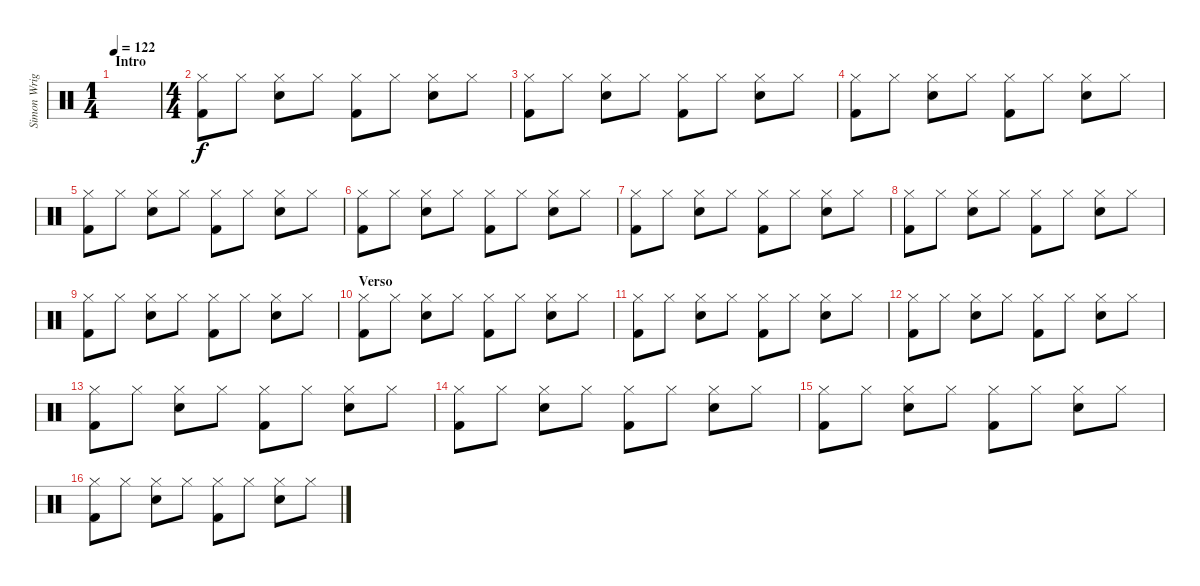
\track ("Simon Wright" "Simon Wrig") {instrument percussion}
\staff {score}
\articulation defaults
\ts (1 4)
\section ("" "Intro")
\tempo 122
\clef neutral
\ks c
|
\ts (4 4)
("Hi-Hat (closed)" "Kick (hit) 2").8 "Hi-Hat (closed)".8 ("Hi-Hat (closed)" "Snare (hit) 2").8 "Hi-Hat (closed)".8 ("Hi-Hat (closed)" "Kick (hit) 2").8 "Hi-Hat (closed)".8 ("Hi-Hat (closed)" "Snare (hit) 2").8 "Hi-Hat (closed)".8 |
("Hi-Hat (closed)" "Kick (hit) 2").8 "Hi-Hat (closed)".8 ("Hi-Hat (closed)" "Snare (hit) 2").8 "Hi-Hat (closed)".8 ("Hi-Hat (closed)" "Kick (hit) 2").8 "Hi-Hat (closed)".8 ("Hi-Hat (closed)" "Snare (hit) 2").8 "Hi-Hat (closed)".8 |
("Hi-Hat (closed)" "Kick (hit) 2").8 "Hi-Hat (closed)".8 ("Hi-Hat (closed)" "Snare (hit) 2").8 "Hi-Hat (closed)".8 ("Hi-Hat (closed)" "Kick (hit) 2").8 "Hi-Hat (closed)".8 ("Hi-Hat (closed)" "Snare (hit) 2").8 "Hi-Hat (closed)".8 |
("Hi-Hat (closed)" "Kick (hit) 2").8 "Hi-Hat (closed)".8 ("Hi-Hat (closed)" "Snare (hit) 2").8 "Hi-Hat (closed)".8 ("Hi-Hat (closed)" "Kick (hit) 2").8 "Hi-Hat (closed)".8 ("Hi-Hat (closed)" "Snare (hit) 2").8 "Hi-Hat (closed)".8 |
("Hi-Hat (closed)" "Kick (hit) 2").8 "Hi-Hat (closed)".8 ("Hi-Hat (closed)" "Snare (hit) 2").8 "Hi-Hat (closed)".8 ("Hi-Hat (closed)" "Kick (hit) 2").8 "Hi-Hat (closed)".8 ("Hi-Hat (closed)" "Snare (hit) 2").8 "Hi-Hat (closed)".8 |
("Hi-Hat (closed)" "Kick (hit) 2").8 "Hi-Hat (closed)".8 ("Hi-Hat (closed)" "Snare (hit) 2").8 "Hi-Hat (closed)".8 ("Hi-Hat (closed)" "Kick (hit) 2").8 "Hi-Hat (closed)".8 ("Hi-Hat (closed)" "Snare (hit) 2").8 "Hi-Hat (closed)".8 |
("Hi-Hat (closed)" "Kick (hit) 2").8 "Hi-Hat (closed)".8 ("Hi-Hat (closed)" "Snare (hit) 2").8 "Hi-Hat (closed)".8 ("Hi-Hat (closed)" "Kick (hit) 2").8 "Hi-Hat (closed)".8 ("Hi-Hat (closed)" "Snare (hit) 2").8 "Hi-Hat (closed)".8 |
("Hi-Hat (closed)" "Kick (hit) 2").8 "Hi-Hat (closed)".8 ("Hi-Hat (closed)" "Snare (hit) 2").8 "Hi-Hat (closed)".8 ("Hi-Hat (closed)" "Kick (hit) 2").8 "Hi-Hat (closed)".8 ("Hi-Hat (closed)" "Snare (hit) 2").8 "Hi-Hat (closed)".8 |
\section ("" "Verso")
("Hi-Hat (closed)" "Kick (hit) 2").8 "Hi-Hat (closed)".8 ("Hi-Hat (closed)" "Snare (hit) 2").8 "Hi-Hat (closed)".8 ("Hi-Hat (closed)" "Kick (hit) 2").8 "Hi-Hat (closed)".8 ("Hi-Hat (closed)" "Snare (hit) 2").8 "Hi-Hat (closed)".8 |
("Hi-Hat (closed)" "Kick (hit) 2").8 "Hi-Hat (closed)".8 ("Hi-Hat (closed)" "Snare (hit) 2").8 "Hi-Hat (closed)".8 ("Hi-Hat (closed)" "Kick (hit) 2").8 "Hi-Hat (closed)".8 ("Hi-Hat (closed)" "Snare (hit) 2").8 "Hi-Hat (closed)".8 |
("Hi-Hat (closed)" "Kick (hit) 2").8 "Hi-Hat (closed)".8 ("Hi-Hat (closed)" "Snare (hit) 2").8 "Hi-Hat (closed)".8 ("Hi-Hat (closed)" "Kick (hit) 2").8 "Hi-Hat (closed)".8 ("Hi-Hat (closed)" "Snare (hit) 2").8 "Hi-Hat (closed)".8 |
("Hi-Hat (closed)" "Kick (hit) 2").8 "Hi-Hat (closed)".8 ("Hi-Hat (closed)" "Snare (hit) 2").8 "Hi-Hat (closed)".8 ("Hi-Hat (closed)" "Kick (hit) 2").8 "Hi-Hat (closed)".8 ("Hi-Hat (closed)" "Snare (hit) 2").8 "Hi-Hat (closed)".8 |
("Hi-Hat (closed)" "Kick (hit) 2").8 "Hi-Hat (closed)".8 ("Hi-Hat (closed)" "Snare (hit) 2").8 "Hi-Hat (closed)".8 ("Hi-Hat (closed)" "Kick (hit) 2").8 "Hi-Hat (closed)".8 ("Hi-Hat (closed)" "Snare (hit) 2").8 "Hi-Hat (closed)".8 |
("Hi-Hat (closed)" "Kick (hit) 2").8 "Hi-Hat (closed)".8 ("Hi-Hat (closed)" "Snare (hit) 2").8 "Hi-Hat (closed)".8 ("Hi-Hat (closed)" "Kick (hit) 2").8 "Hi-Hat (closed)".8 ("Hi-Hat (closed)" "Snare (hit) 2").8 "Hi-Hat (closed)".8 |
("Hi-Hat (closed)" "Kick (hit) 2").8 "Hi-Hat (closed)".8 ("Hi-Hat (closed)" "Snare (hit) 2").8 "Hi-Hat (closed)".8 ("Hi-Hat (closed)" "Kick (hit) 2").8 "Hi-Hat (closed)".8 ("Hi-Hat (closed)" "Snare (hit) 2").8 "Hi-Hat (closed)".8
